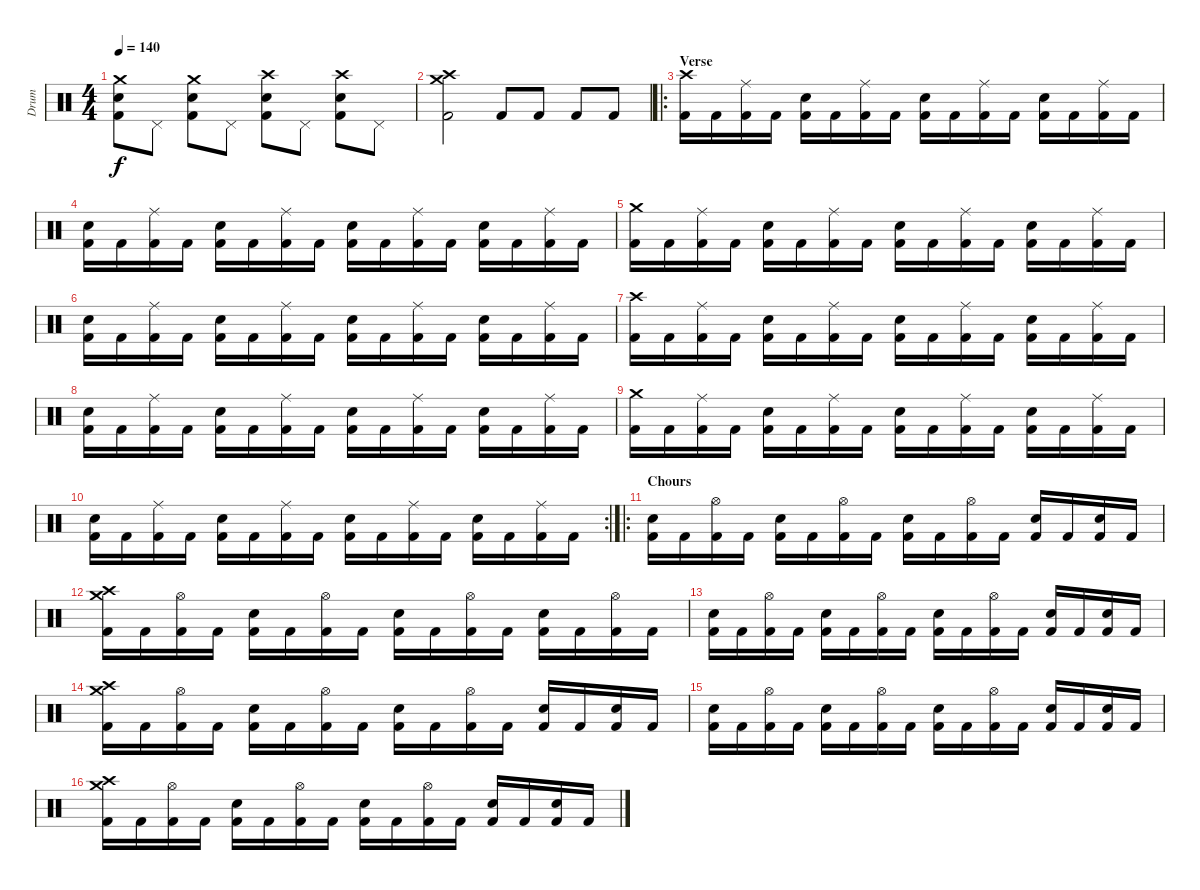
\track ("Drum" "Drum") {instrument percussion}
\staff {score}
\articulation defaults
\ts (4 4)
\tempo 140
\clef neutral
\ks c
("Crash medium (hit)" "Electric Snare (hit)" "Kick (hit) 2").8{dy f} "Pedal Hi-Hat (hit)".8 ("Crash medium (hit)" "Electric Snare (hit)" "Kick (hit) 2").8 "Pedal Hi-Hat (hit)".8 ("Crash high (hit)" "Electric Snare (hit)" "Kick (hit) 2").8 "Pedal Hi-Hat (hit)".8 ("Crash high (hit)" "Electric Snare (hit)" "Kick (hit) 2").8 "Pedal Hi-Hat (hit)".8 |
("Crash high (hit)" "Crash medium (hit)" "Kick (hit) 2").2 "Kick (hit) 2".8 "Kick (hit) 2".8 "Kick (hit) 2".8 "Kick (hit) 2".8 |
\ro
\section ("" "Verse")
("Crash high (hit)" "Kick (hit) 2").16 "Kick (hit) 2".16 ("Ride (middle)" "Kick (hit) 2").16 "Kick (hit) 2".16 ("Electric Snare (hit)" "Kick (hit) 2").16 "Kick (hit) 2".16 ("Ride (middle)" "Kick (hit) 2").16 "Kick (hit) 2".16 ("Electric Snare (hit)" "Kick (hit) 2").16 "Kick (hit) 2".16 ("Ride (middle)" "Kick (hit) 2").16 "Kick (hit) 2".16 ("Electric Snare (hit)" "Kick (hit) 2").16 "Kick (hit) 2".16 ("Ride (middle)" "Kick (hit) 2").16 "Kick (hit) 2".16 |
("Electric Snare (hit)" "Kick (hit) 2").16 "Kick (hit) 2".16 ("Ride (middle)" "Kick (hit) 2").16 "Kick (hit) 2".16 ("Electric Snare (hit)" "Kick (hit) 2").16 "Kick (hit) 2".16 ("Ride (middle)" "Kick (hit) 2").16 "Kick (hit) 2".16 ("Electric Snare (hit)" "Kick (hit) 2").16 "Kick (hit) 2".16 ("Ride (middle)" "Kick (hit) 2").16 "Kick (hit) 2".16 ("Electric Snare (hit)" "Kick (hit) 2").16 "Kick (hit) 2".16 ("Ride (middle)" "Kick (hit) 2").16 "Kick (hit) 2".16 |
("Crash medium (hit)" "Kick (hit) 2").16 "Kick (hit) 2".16 ("Ride (middle)" "Kick (hit) 2").16 "Kick (hit) 2".16 ("Electric Snare (hit)" "Kick (hit) 2").16 "Kick (hit) 2".16 ("Ride (middle)" "Kick (hit) 2").16 "Kick (hit) 2".16 ("Electric Snare (hit)" "Kick (hit) 2").16 "Kick (hit) 2".16 ("Ride (middle)" "Kick (hit) 2").16 "Kick (hit) 2".16 ("Electric Snare (hit)" "Kick (hit) 2").16 "Kick (hit) 2".16 ("Ride (middle)" "Kick (hit) 2").16 "Kick (hit) 2".16 |
("Electric Snare (hit)" "Kick (hit) 2").16 "Kick (hit) 2".16 ("Ride (middle)" "Kick (hit) 2").16 "Kick (hit) 2".16 ("Electric Snare (hit)" "Kick (hit) 2").16 "Kick (hit) 2".16 ("Ride (middle)" "Kick (hit) 2").16 "Kick (hit) 2".16 ("Electric Snare (hit)" "Kick (hit) 2").16 "Kick (hit) 2".16 ("Ride (middle)" "Kick (hit) 2").16 "Kick (hit) 2".16 ("Electric Snare (hit)" "Kick (hit) 2").16 "Kick (hit) 2".16 ("Ride (middle)" "Kick (hit) 2").16 "Kick (hit) 2".16 |
("Crash high (hit)" "Kick (hit) 2").16 "Kick (hit) 2".16 ("Ride (middle)" "Kick (hit) 2").16 "Kick (hit) 2".16 ("Electric Snare (hit)" "Kick (hit) 2").16 "Kick (hit) 2".16 ("Ride (middle)" "Kick (hit) 2").16 "Kick (hit) 2".16 ("Electric Snare (hit)" "Kick (hit) 2").16 "Kick (hit) 2".16 ("Ride (middle)" "Kick (hit) 2").16 "Kick (hit) 2".16 ("Electric Snare (hit)" "Kick (hit) 2").16 "Kick (hit) 2".16 ("Ride (middle)" "Kick (hit) 2").16 "Kick (hit) 2".16 |
("Electric Snare (hit)" "Kick (hit) 2").16 "Kick (hit) 2".16 ("Ride (middle)" "Kick (hit) 2").16 "Kick (hit) 2".16 ("Electric Snare (hit)" "Kick (hit) 2").16 "Kick (hit) 2".16 ("Ride (middle)" "Kick (hit) 2").16 "Kick (hit) 2".16 ("Electric Snare (hit)" "Kick (hit) 2").16 "Kick (hit) 2".16 ("Ride (middle)" "Kick (hit) 2").16 "Kick (hit) 2".16 ("Electric Snare (hit)" "Kick (hit) 2").16 "Kick (hit) 2".16 ("Ride (middle)" "Kick (hit) 2").16 "Kick (hit) 2".16 |
("Crash medium (hit)" "Kick (hit) 2").16 "Kick (hit) 2".16 ("Ride (middle)" "Kick (hit) 2").16 "Kick (hit) 2".16 ("Electric Snare (hit)" "Kick (hit) 2").16 "Kick (hit) 2".16 ("Ride (middle)" "Kick (hit) 2").16 "Kick (hit) 2".16 ("Electric Snare (hit)" "Kick (hit) 2").16 "Kick (hit) 2".16 ("Ride (middle)" "Kick (hit) 2").16 "Kick (hit) 2".16 ("Electric Snare (hit)" "Kick (hit) 2").16 "Kick (hit) 2".16 ("Ride (middle)" "Kick (hit) 2").16 "Kick (hit) 2".16 |
\rc 2
("Electric Snare (hit)" "Kick (hit) 2").16 "Kick (hit) 2".16 ("Ride (middle)" "Kick (hit) 2").16 "Kick (hit) 2".16 ("Electric Snare (hit)" "Kick (hit) 2").16 "Kick (hit) 2".16 ("Ride (middle)" "Kick (hit) 2").16 "Kick (hit) 2".16 ("Electric Snare (hit)" "Kick (hit) 2").16 "Kick (hit) 2".16 ("Ride (middle)" "Kick (hit) 2").16 "Kick (hit) 2".16 ("Electric Snare (hit)" "Kick (hit) 2").16 "Kick (hit) 2".16 ("Ride (middle)" "Kick (hit) 2").16 "Kick (hit) 2".16 |
\ro
\section ("" "Chours")
("Electric Snare (hit)" "Kick (hit) 2").16 "Kick (hit) 2".16 ("Hi-Hat (open)" "Kick (hit) 2").16 "Kick (hit) 2".16 ("Electric Snare (hit)" "Kick (hit) 2").16 "Kick (hit) 2".16 ("Hi-Hat (open)" "Kick (hit) 2").16 "Kick (hit) 2".16 ("Electric Snare (hit)" "Kick (hit) 2").16 "Kick (hit) 2".16 ("Hi-Hat (open)" "Kick (hit) 2").16 "Kick (hit) 2".16 ("Electric Snare (hit)" "Kick (hit) 2").16 "Kick (hit) 2".16 ("Electric Snare (hit)" "Kick (hit) 2").16 "Kick (hit) 2".16 |
("Crash medium (hit)" "Crash high (hit)" "Kick (hit) 2").16 "Kick (hit) 2".16 ("Hi-Hat (open)" "Kick (hit) 2").16 "Kick (hit) 2".16 ("Electric Snare (hit)" "Kick (hit) 2").16 "Kick (hit) 2".16 ("Hi-Hat (open)" "Kick (hit) 2").16 "Kick (hit) 2".16 ("Electric Snare (hit)" "Kick (hit) 2").16 "Kick (hit) 2".16 ("Hi-Hat (open)" "Kick (hit) 2").16 "Kick (hit) 2".16 ("Electric Snare (hit)" "Kick (hit) 2").16 "Kick (hit) 2".16 ("Hi-Hat (open)" "Kick (hit) 2").16 "Kick (hit) 2".16 |
("Electric Snare (hit)" "Kick (hit) 2").16 "Kick (hit) 2".16 ("Hi-Hat (open)" "Kick (hit) 2").16 "Kick (hit) 2".16 ("Electric Snare (hit)" "Kick (hit) 2").16 "Kick (hit) 2".16 ("Hi-Hat (open)" "Kick (hit) 2").16 "Kick (hit) 2".16 ("Electric Snare (hit)" "Kick (hit) 2").16 "Kick (hit) 2".16 ("Hi-Hat (open)" "Kick (hit) 2").16 "Kick (hit) 2".16 ("Electric Snare (hit)" "Kick (hit) 2").16 "Kick (hit) 2".16 ("Electric Snare (hit)" "Kick (hit) 2").16 "Kick (hit) 2".16 |
("Crash medium (hit)" "Crash high (hit)" "Kick (hit) 2").16 "Kick (hit) 2".16 ("Hi-Hat (open)" "Kick (hit) 2").16 "Kick (hit) 2".16 ("Electric Snare (hit)" "Kick (hit) 2").16 "Kick (hit) 2".16 ("Hi-Hat (open)" "Kick (hit) 2").16 "Kick (hit) 2".16 ("Electric Snare (hit)" "Kick (hit) 2").16 "Kick (hit) 2".16 ("Hi-Hat (open)" "Kick (hit) 2").16 "Kick (hit) 2".16 ("Electric Snare (hit)" "Kick (hit) 2").16 "Kick (hit) 2".16 ("Electric Snare (hit)" "Kick (hit) 2").16 "Kick (hit) 2".16 |
("Electric Snare (hit)" "Kick (hit) 2").16 "Kick (hit) 2".16 ("Hi-Hat (open)" "Kick (hit) 2").16 "Kick (hit) 2".16 ("Electric Snare (hit)" "Kick (hit) 2").16 "Kick (hit) 2".16 ("Hi-Hat (open)" "Kick (hit) 2").16 "Kick (hit) 2".16 ("Electric Snare (hit)" "Kick (hit) 2").16 "Kick (hit) 2".16 ("Hi-Hat (open)" "Kick (hit) 2").16 "Kick (hit) 2".16 ("Electric Snare (hit)" "Kick (hit) 2").16 "Kick (hit) 2".16 ("Electric Snare (hit)" "Kick (hit) 2").16 "Kick (hit) 2".16 |
("Crash medium (hit)" "Crash high (hit)" "Kick (hit) 2").16 "Kick (hit) 2".16 ("Hi-Hat (open)" "Kick (hit) 2").16 "Kick (hit) 2".16 ("Electric Snare (hit)" "Kick (hit) 2").16 "Kick (hit) 2".16 ("Hi-Hat (open)" "Kick (hit) 2").16 "Kick (hit) 2".16 ("Electric Snare (hit)" "Kick (hit) 2").16 "Kick (hit) 2".16 ("Hi-Hat (open)" "Kick (hit) 2").16 "Kick (hit) 2".16 ("Electric Snare (hit)" "Kick (hit) 2").16 "Kick (hit) 2".16 ("Electric Snare (hit)" "Kick (hit) 2").16 "Kick (hit) 2".16
